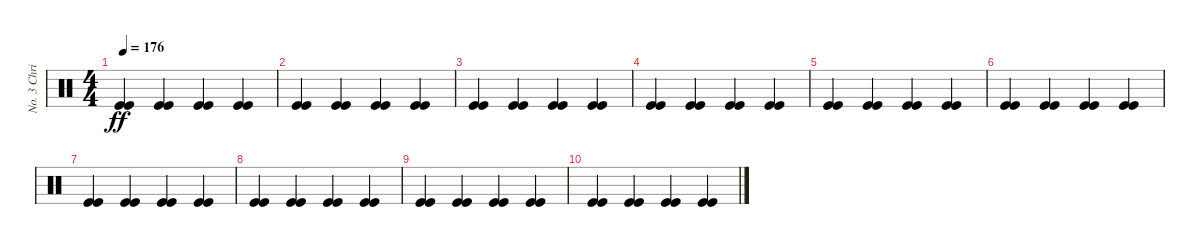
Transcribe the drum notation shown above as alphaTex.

\track ("No. 3 Chris" "No. 3 Chri") {instrument percussion}
\staff {score}
\articulation defaults
\ts (4 4)
\tempo 176
\clef neutral
\ks c
("Kick (hit)" "Kick (hit)").4{dy ff} ("Kick (hit)" "Kick (hit)").4 ("Kick (hit)" "Kick (hit)").4 ("Kick (hit)" "Kick (hit)").4 |
("Kick (hit)" "Kick (hit)").4 ("Kick (hit)" "Kick (hit)").4 ("Kick (hit)" "Kick (hit)").4 ("Kick (hit)" "Kick (hit)").4 |
("Kick (hit)" "Kick (hit)").4 ("Kick (hit)" "Kick (hit)").4 ("Kick (hit)" "Kick (hit)").4 ("Kick (hit)" "Kick (hit)").4 |
("Kick (hit)" "Kick (hit)").4 ("Kick (hit)" "Kick (hit)").4 ("Kick (hit)" "Kick (hit)").4 ("Kick (hit)" "Kick (hit)").4 |
("Kick (hit)" "Kick (hit)").4 ("Kick (hit)" "Kick (hit)").4 ("Kick (hit)" "Kick (hit)").4 ("Kick (hit)" "Kick (hit)").4 |
("Kick (hit)" "Kick (hit)").4 ("Kick (hit)" "Kick (hit)").4 ("Kick (hit)" "Kick (hit)").4 ("Kick (hit)" "Kick (hit)").4 |
("Kick (hit)" "Kick (hit)").4 ("Kick (hit)" "Kick (hit)").4 ("Kick (hit)" "Kick (hit)").4 ("Kick (hit)" "Kick (hit)").4 |
("Kick (hit)" "Kick (hit)").4 ("Kick (hit)" "Kick (hit)").4 ("Kick (hit)" "Kick (hit)").4 ("Kick (hit)" "Kick (hit)").4 |
("Kick (hit)" "Kick (hit)").4 ("Kick (hit)" "Kick (hit)").4 ("Kick (hit)" "Kick (hit)").4 ("Kick (hit)" "Kick (hit)").4 |
("Kick (hit)" "Kick (hit)").4 ("Kick (hit)" "Kick (hit)").4 ("Kick (hit)" "Kick (hit)").4 ("Kick (hit)" "Kick (hit)").4
